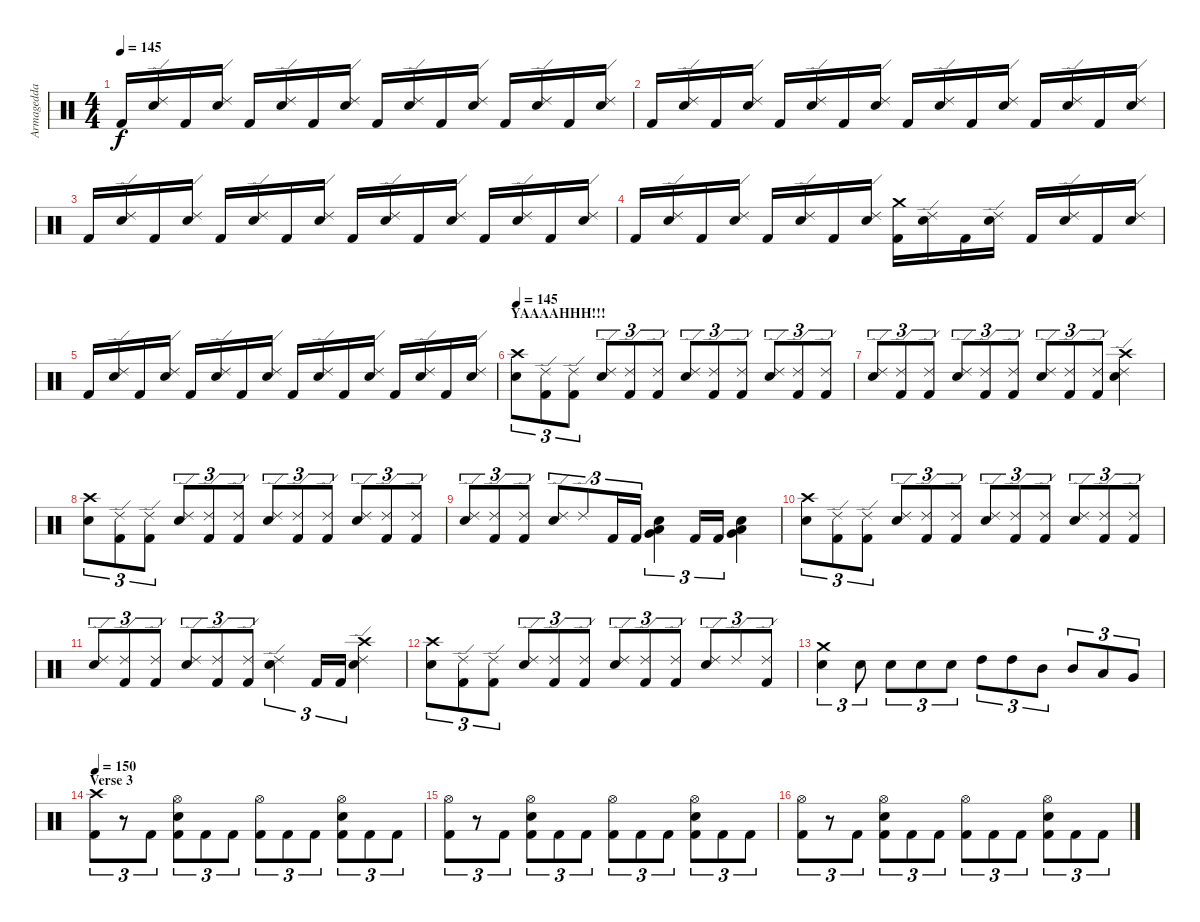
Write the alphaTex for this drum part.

\track ("Armagedda" "Armagedda") {instrument percussion}
\staff {score}
\articulation defaults
\ts (4 4)
\tempo 145
\clef neutral
\ks c "Kick (hit) 2".16{dy f}
("Ride (edge) 2" "Electric Snare (hit)").16 "Kick (hit) 2".16 ("Ride (edge) 2" "Electric Snare (hit)").16 "Kick (hit) 2".16 ("Ride (edge) 2" "Electric Snare (hit)").16 "Kick (hit) 2".16 ("Ride (edge) 2" "Electric Snare (hit)").16 "Kick (hit) 2".16 ("Ride (edge) 2" "Electric Snare (hit)").16 "Kick (hit) 2".16 ("Ride (edge) 2" "Electric Snare (hit)").16 "Kick (hit) 2".16 ("Ride (edge) 2" "Electric Snare (hit)").16 "Kick (hit) 2".16 ("Ride (edge) 2" "Electric Snare (hit)").16 |
"Kick (hit) 2".16 ("Ride (edge) 2" "Electric Snare (hit)").16 "Kick (hit) 2".16 ("Ride (edge) 2" "Electric Snare (hit)").16 "Kick (hit) 2".16 ("Ride (edge) 2" "Electric Snare (hit)").16 "Kick (hit) 2".16 ("Ride (edge) 2" "Electric Snare (hit)").16 "Kick (hit) 2".16 ("Ride (edge) 2" "Electric Snare (hit)").16 "Kick (hit) 2".16 ("Ride (edge) 2" "Electric Snare (hit)").16 "Kick (hit) 2".16 ("Ride (edge) 2" "Electric Snare (hit)").16 "Kick (hit) 2".16 ("Ride (edge) 2" "Electric Snare (hit)").16 |
"Kick (hit) 2".16 ("Ride (edge) 2" "Electric Snare (hit)").16 "Kick (hit) 2".16 ("Ride (edge) 2" "Electric Snare (hit)").16 "Kick (hit) 2".16 ("Ride (edge) 2" "Electric Snare (hit)").16 "Kick (hit) 2".16 ("Ride (edge) 2" "Electric Snare (hit)").16 "Kick (hit) 2".16 ("Ride (edge) 2" "Electric Snare (hit)").16 "Kick (hit) 2".16 ("Ride (edge) 2" "Electric Snare (hit)").16 "Kick (hit) 2".16 ("Ride (edge) 2" "Electric Snare (hit)").16 "Kick (hit) 2".16 ("Ride (edge) 2" "Electric Snare (hit)").16 |
"Kick (hit) 2".16 ("Ride (edge) 2" "Electric Snare (hit)").16 "Kick (hit) 2".16 ("Ride (edge) 2" "Electric Snare (hit)").16 "Kick (hit) 2".16 ("Ride (edge) 2" "Electric Snare (hit)").16 "Kick (hit) 2".16 ("Ride (edge) 2" "Electric Snare (hit)").16 ("Crash medium (hit)" "Kick (hit) 2").16 ("Ride (edge) 2" "Electric Snare (hit)").16 "Kick (hit) 2".16 ("Ride (edge) 2" "Electric Snare (hit)").16 "Kick (hit) 2".16 ("Ride (edge) 2" "Electric Snare (hit)").16 "Kick (hit) 2".16 ("Ride (edge) 2" "Electric Snare (hit)").16 |
"Kick (hit) 2".16 ("Ride (edge) 2" "Electric Snare (hit)").16 "Kick (hit) 2".16 ("Ride (edge) 2" "Electric Snare (hit)").16 "Kick (hit) 2".16 ("Ride (edge) 2" "Electric Snare (hit)").16 "Kick (hit) 2".16 ("Ride (edge) 2" "Electric Snare (hit)").16 "Kick (hit) 2".16 ("Ride (edge) 2" "Electric Snare (hit)").16 "Kick (hit) 2".16 ("Ride (edge) 2" "Electric Snare (hit)").16 "Kick (hit) 2".16 ("Ride (edge) 2" "Electric Snare (hit)").16 "Kick (hit) 2".16 ("Ride (edge) 2" "Electric Snare (hit)").16 |
\section ("" "YAAAAHHH!!!")
\tempo 145
("Crash high (hit)" "Electric Snare (hit)").8{tu (3 2)} ("Ride (edge) 2" "Kick (hit) 2").8{tu (3 2)} ("Ride (edge) 2" "Kick (hit) 2").8{tu (3 2)} ("Ride (edge) 2" "Electric Snare (hit)").8{tu (3 2)} ("Ride (edge) 2" "Kick (hit) 2").8{tu (3 2)} ("Ride (edge) 2" "Kick (hit) 2").8{tu (3 2)} ("Ride (edge) 2" "Electric Snare (hit)").8{tu (3 2)} ("Ride (edge) 2" "Kick (hit) 2").8{tu (3 2)} ("Ride (edge) 2" "Kick (hit) 2").8{tu (3 2)} ("Ride (edge) 2" "Electric Snare (hit)").8{tu (3 2)} ("Ride (edge) 2" "Kick (hit) 2").8{tu (3 2)} ("Ride (edge) 2" "Kick (hit) 2").8{tu (3 2)} |
("Ride (edge) 2" "Electric Snare (hit)").8{tu (3 2)} ("Ride (edge) 2" "Kick (hit) 2").8{tu (3 2)} ("Ride (edge) 2" "Kick (hit) 2").8{tu (3 2)} ("Ride (edge) 2" "Electric Snare (hit)").8{tu (3 2)} ("Ride (edge) 2" "Kick (hit) 2").8{tu (3 2)} ("Ride (edge) 2" "Kick (hit) 2").8{tu (3 2)} ("Ride (edge) 2" "Electric Snare (hit)").8{tu (3 2)} ("Ride (edge) 2" "Kick (hit) 2").8{tu (3 2)} ("Ride (edge) 2" "Kick (hit) 2").8{tu (3 2)} ("Crash high (hit)" "Ride (edge) 2" "Electric Snare (hit)").4 |
("Crash high (hit)" "Electric Snare (hit)").8{tu (3 2)} ("Ride (edge) 2" "Kick (hit) 2").8{tu (3 2)} ("Ride (edge) 2" "Kick (hit) 2").8{tu (3 2)} ("Ride (edge) 2" "Electric Snare (hit)").8{tu (3 2)} ("Ride (edge) 2" "Kick (hit) 2").8{tu (3 2)} ("Ride (edge) 2" "Kick (hit) 2").8{tu (3 2)} ("Ride (edge) 2" "Electric Snare (hit)").8{tu (3 2)} ("Ride (edge) 2" "Kick (hit) 2").8{tu (3 2)} ("Ride (edge) 2" "Kick (hit) 2").8{tu (3 2)} ("Ride (edge) 2" "Electric Snare (hit)").8{tu (3 2)} ("Ride (edge) 2" "Kick (hit) 2").8{tu (3 2)} ("Ride (edge) 2" "Kick (hit) 2").8{tu (3 2)} |
("Ride (edge) 2" "Electric Snare (hit)").8{tu (3 2)} ("Ride (edge) 2" "Kick (hit) 2").8{tu (3 2)} ("Ride (edge) 2" "Kick (hit) 2").8{tu (3 2)} ("Ride (edge) 2" "Electric Snare (hit)").8{tu (3 2)} "Ride (edge) 2".8{tu (3 2)} "Kick (hit) 2".16{tu (3 2)} "Kick (hit) 2".16{tu (3 2)} ("Very Low Tom (hit)" "Low Floor Tom (hit)" "Electric Snare (hit)").4{tu (3 2)} "Kick (hit) 2".16{tu (3 2)} "Kick (hit) 2".16{tu (3 2)} ("Very Low Tom (hit)" "Low Floor Tom (hit)" "Electric Snare (hit)").4 |
("Crash high (hit)" "Electric Snare (hit)").8{tu (3 2)} ("Ride (edge) 2" "Kick (hit) 2").8{tu (3 2)} ("Ride (edge) 2" "Kick (hit) 2").8{tu (3 2)} ("Ride (edge) 2" "Electric Snare (hit)").8{tu (3 2)} ("Ride (edge) 2" "Kick (hit) 2").8{tu (3 2)} ("Ride (edge) 2" "Kick (hit) 2").8{tu (3 2)} ("Ride (edge) 2" "Electric Snare (hit)").8{tu (3 2)} ("Ride (edge) 2" "Kick (hit) 2").8{tu (3 2)} ("Ride (edge) 2" "Kick (hit) 2").8{tu (3 2)} ("Ride (edge) 2" "Electric Snare (hit)").8{tu (3 2)} ("Ride (edge) 2" "Kick (hit) 2").8{tu (3 2)} ("Ride (edge) 2" "Kick (hit) 2").8{tu (3 2)} |
("Ride (edge) 2" "Electric Snare (hit)").8{tu (3 2)} ("Ride (edge) 2" "Kick (hit) 2").8{tu (3 2)} ("Ride (edge) 2" "Kick (hit) 2").8{tu (3 2)} ("Ride (edge) 2" "Electric Snare (hit)").8{tu (3 2)} ("Ride (edge) 2" "Kick (hit) 2").8{tu (3 2)} ("Ride (edge) 2" "Kick (hit) 2").8{tu (3 2)} ("Ride (edge) 2" "Electric Snare (hit)").4{tu (3 2)} "Kick (hit) 2".16{tu (3 2)} "Kick (hit) 2".16{tu (3 2)} ("Crash high (hit)" "Ride (edge) 2" "Electric Snare (hit)").4 |
("Crash high (hit)" "Electric Snare (hit)").8{tu (3 2)} ("Ride (edge) 2" "Kick (hit) 2").8{tu (3 2)} ("Ride (edge) 2" "Kick (hit) 2").8{tu (3 2)} ("Ride (edge) 2" "Electric Snare (hit)").8{tu (3 2)} ("Ride (edge) 2" "Kick (hit) 2").8{tu (3 2)} ("Ride (edge) 2" "Kick (hit) 2").8{tu (3 2)} ("Ride (edge) 2" "Electric Snare (hit)").8{tu (3 2)} ("Ride (edge) 2" "Kick (hit) 2").8{tu (3 2)} ("Ride (edge) 2" "Kick (hit) 2").8{tu (3 2)} ("Ride (edge) 2" "Electric Snare (hit)").8{tu (3 2)} "Ride (edge) 2".8{tu (3 2)} ("Ride (edge) 2" "Kick (hit) 2").8{tu (3 2)} |
("Crash medium (hit)" "Electric Snare (hit)").4{tu (3 2)} "Electric Snare (hit)".8{tu (3 2)} "Electric Snare (hit)".8{tu (3 2)} "Electric Snare (hit)".8{tu (3 2)} "Electric Snare (hit)".8{tu (3 2)} "High Tom (hit)".8{tu (3 2)} "High Tom (hit)".8{tu (3 2)} "Mid Tom (hit)".8{tu (3 2)} "Mid Tom (hit)".8{tu (3 2)} "Low Tom (hit)".8{tu (3 2)} "Very Low Tom (hit)".8{tu (3 2)} |
\section ("" "Verse 3")
\tempo 150
("Crash high (hit)" "Kick (hit) 2").8{tu (3 2)} r.8{tu (3 2)} "Kick (hit) 2".8{tu (3 2)} ("Hi-Hat (open)" "Electric Snare (hit)" "Kick (hit) 2").8{tu (3 2)} "Kick (hit) 2".8{tu (3 2)} "Kick (hit) 2".8{tu (3 2)} ("Hi-Hat (open)" "Kick (hit) 2").8{tu (3 2)} "Kick (hit) 2".8{tu (3 2)} "Kick (hit) 2".8{tu (3 2)} ("Hi-Hat (open)" "Electric Snare (hit)" "Kick (hit) 2").8{tu (3 2)} "Kick (hit) 2".8{tu (3 2)} "Kick (hit) 2".8{tu (3 2)} |
("Hi-Hat (open)" "Kick (hit) 2").8{tu (3 2)} r.8{tu (3 2)} "Kick (hit) 2".8{tu (3 2)} ("Hi-Hat (open)" "Electric Snare (hit)" "Kick (hit) 2").8{tu (3 2)} "Kick (hit) 2".8{tu (3 2)} "Kick (hit) 2".8{tu (3 2)} ("Hi-Hat (open)" "Kick (hit) 2").8{tu (3 2)} "Kick (hit) 2".8{tu (3 2)} "Kick (hit) 2".8{tu (3 2)} ("Hi-Hat (open)" "Electric Snare (hit)" "Kick (hit) 2").8{tu (3 2)} "Kick (hit) 2".8{tu (3 2)} "Kick (hit) 2".8{tu (3 2)} |
("Hi-Hat (open)" "Kick (hit) 2").8{tu (3 2)} r.8{tu (3 2)} "Kick (hit) 2".8{tu (3 2)} ("Hi-Hat (open)" "Electric Snare (hit)" "Kick (hit) 2").8{tu (3 2)} "Kick (hit) 2".8{tu (3 2)} "Kick (hit) 2".8{tu (3 2)} ("Hi-Hat (open)" "Kick (hit) 2").8{tu (3 2)} "Kick (hit) 2".8{tu (3 2)} "Kick (hit) 2".8{tu (3 2)} ("Hi-Hat (open)" "Electric Snare (hit)" "Kick (hit) 2").8{tu (3 2)} "Kick (hit) 2".8{tu (3 2)} "Kick (hit) 2".8{tu (3 2)}
